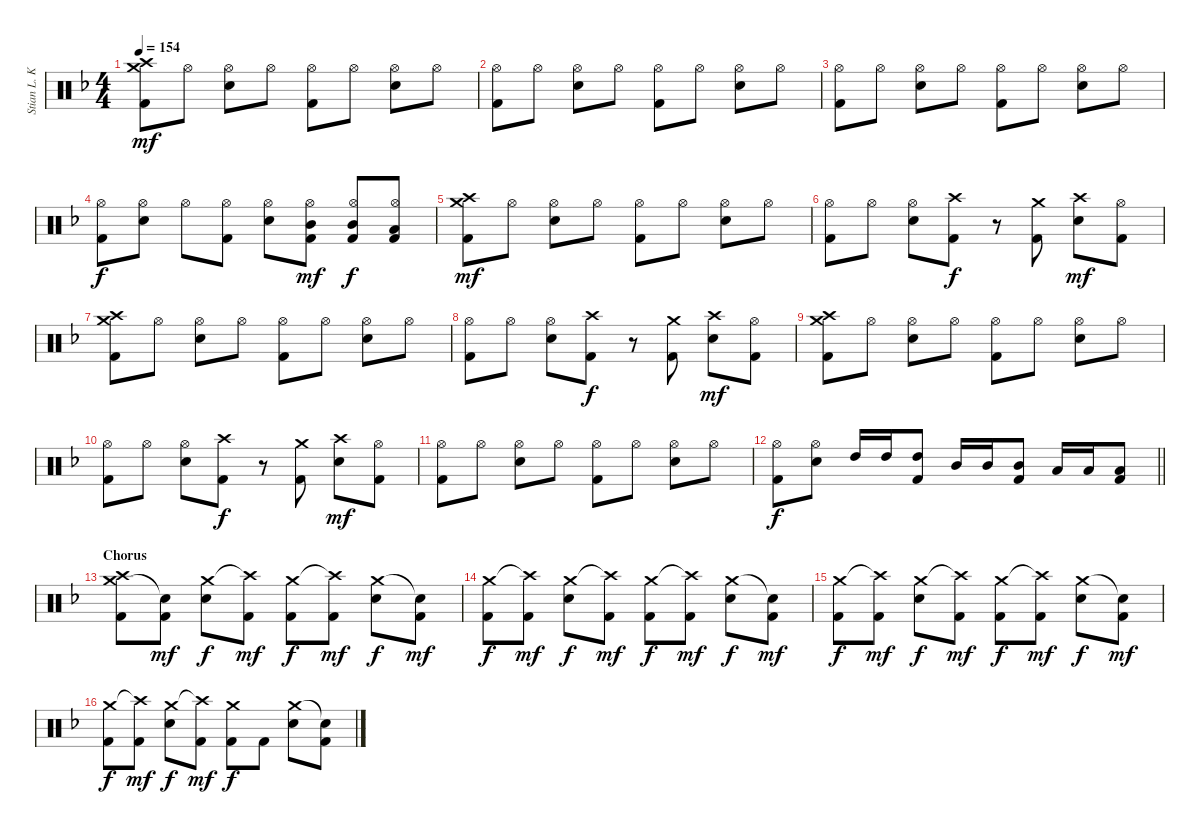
\track ("Stian L. Kristoffersen" "Stian L. K") {instrument percussion}
\staff {score}
\articulation defaults
\ts (4 4)
\tempo 154
\clef neutral
\ks f
("Crash medium (hit)" "Crash high (hit)" "Kick (hit) 2").8{dy mf} "Hi-Hat (open)".8 ("Hi-Hat (open)" "Snare (hit) 2").8 "Hi-Hat (open)".8 ("Hi-Hat (open)" "Kick (hit) 2").8 "Hi-Hat (open)".8 ("Hi-Hat (open)" "Snare (hit) 2").8 "Hi-Hat (open)".8 |
("Hi-Hat (open)" "Kick (hit) 2").8 "Hi-Hat (open)".8 ("Hi-Hat (open)" "Snare (hit) 2").8 "Hi-Hat (open)".8 ("Hi-Hat (open)" "Kick (hit) 2").8 "Hi-Hat (open)".8 ("Hi-Hat (open)" "Snare (hit) 2").8 "Hi-Hat (open)".8 |
("Hi-Hat (open)" "Kick (hit) 2").8 "Hi-Hat (open)".8 ("Hi-Hat (open)" "Snare (hit) 2").8 "Hi-Hat (open)".8 ("Hi-Hat (open)" "Kick (hit) 2").8 "Hi-Hat (open)".8 ("Hi-Hat (open)" "Snare (hit) 2").8 "Hi-Hat (open)".8 |
("Hi-Hat (open)" "Kick (hit) 2").8{dy f} ("Hi-Hat (open)" "Snare (hit) 2").8 "Hi-Hat (open)".8 ("Hi-Hat (open)" "Kick (hit) 2").8 ("Hi-Hat (open)" "Snare (hit) 2").8 ("Hi-Hat (open)" "Mid Tom (hit)" "Kick (hit) 2").8{dy mf} ("Hi-Hat (open)" "Mid Tom (hit)" "Kick (hit) 2").8{dy f} ("Hi-Hat (open)" "Low Tom (hit)" "Kick (hit) 2").8 |
("Crash medium (hit)" "Crash high (hit)" "Kick (hit) 2").8{dy mf} "Hi-Hat (open)".8 ("Hi-Hat (open)" "Snare (hit) 2").8 "Hi-Hat (open)".8 ("Hi-Hat (open)" "Kick (hit) 2").8 "Hi-Hat (open)".8 ("Hi-Hat (open)" "Snare (hit) 2").8 "Hi-Hat (open)".8 |
("Hi-Hat (open)" "Kick (hit) 2").8 "Hi-Hat (open)".8 ("Hi-Hat (open)" "Snare (hit) 2").8 ("Crash high (hit)" "Kick (hit) 2").8{dy f} r.8 ("Crash medium (hit)" "Kick (hit) 2").8 ("Crash high (hit)" "Snare (hit) 2").8{dy mf} ("Hi-Hat (open)" "Kick (hit) 2").8 |
("Crash medium (hit)" "Crash high (hit)" "Kick (hit) 2").8 "Hi-Hat (open)".8 ("Hi-Hat (open)" "Snare (hit) 2").8 "Hi-Hat (open)".8 ("Hi-Hat (open)" "Kick (hit) 2").8 "Hi-Hat (open)".8 ("Hi-Hat (open)" "Snare (hit) 2").8 "Hi-Hat (open)".8 |
("Hi-Hat (open)" "Kick (hit) 2").8 "Hi-Hat (open)".8 ("Hi-Hat (open)" "Snare (hit) 2").8 ("Crash high (hit)" "Kick (hit) 2").8{dy f} r.8 ("Crash medium (hit)" "Kick (hit) 2").8 ("Crash high (hit)" "Snare (hit) 2").8{dy mf} ("Hi-Hat (open)" "Kick (hit) 2").8 |
("Crash medium (hit)" "Crash high (hit)" "Kick (hit) 2").8 "Hi-Hat (open)".8 ("Hi-Hat (open)" "Snare (hit) 2").8 "Hi-Hat (open)".8 ("Hi-Hat (open)" "Kick (hit) 2").8 "Hi-Hat (open)".8 ("Hi-Hat (open)" "Snare (hit) 2").8 "Hi-Hat (open)".8 |
("Hi-Hat (open)" "Kick (hit) 2").8 "Hi-Hat (open)".8 ("Hi-Hat (open)" "Snare (hit) 2").8 ("Crash high (hit)" "Kick (hit) 2").8{dy f} r.8 ("Crash medium (hit)" "Kick (hit) 2").8 ("Crash high (hit)" "Snare (hit) 2").8{dy mf} ("Hi-Hat (open)" "Kick (hit) 2").8 |
("Hi-Hat (open)" "Kick (hit) 2").8 "Hi-Hat (open)".8 ("Hi-Hat (open)" "Snare (hit) 2").8 "Hi-Hat (open)".8 ("Hi-Hat (open)" "Kick (hit) 2").8 "Hi-Hat (open)".8 ("Hi-Hat (open)" "Snare (hit) 2").8 "Hi-Hat (open)".8 |
\barLineRight lightlight
("Hi-Hat (open)" "Kick (hit) 2").8{dy f} ("Hi-Hat (open)" "Snare (hit) 2").8 "High Tom (hit)".16 "High Tom (hit)".16 ("High Tom (hit)" "Kick (hit) 2").8 "Mid Tom (hit)".16 "Mid Tom (hit)".16 ("Mid Tom (hit)" "Kick (hit) 2").8 "Low Tom (hit)".16 "Low Tom (hit)".16 ("Low Tom (hit)" "Kick (hit) 2").8 |
\section ("" "Chorus")
("Crash medium (hit)" "Crash high (hit)" "Kick (hit) 2").8 ("Snare (hit)"{t} "Kick (hit) 2").8{dy mf} ("Crash medium (hit)" "Snare (hit) 2").8{dy f} ("Crash high (hit)"{t} "Kick (hit) 2").8{dy mf} ("Crash medium (hit)" "Kick (hit) 2").8{dy f} ("Crash high (hit)"{t} "Kick (hit) 2").8{dy mf} ("Crash medium (hit)" "Snare (hit) 2").8{dy f} ("Snare (hit)"{t} "Kick (hit) 2").8{dy mf} |
("Crash medium (hit)" "Kick (hit) 2").8{dy f} ("Crash high (hit)"{t} "Kick (hit) 2").8{dy mf} ("Crash medium (hit)" "Snare (hit) 2").8{dy f} ("Crash high (hit)"{t} "Kick (hit) 2").8{dy mf} ("Crash medium (hit)" "Kick (hit) 2").8{dy f} ("Crash high (hit)"{t} "Kick (hit) 2").8{dy mf} ("Crash medium (hit)" "Snare (hit) 2").8{dy f} ("Snare (hit)"{t} "Kick (hit) 2").8{dy mf} |
("Crash medium (hit)" "Kick (hit) 2").8{dy f} ("Crash high (hit)"{t} "Kick (hit) 2").8{dy mf} ("Crash medium (hit)" "Snare (hit) 2").8{dy f} ("Crash high (hit)"{t} "Kick (hit) 2").8{dy mf} ("Crash medium (hit)" "Kick (hit) 2").8{dy f} ("Crash high (hit)"{t} "Kick (hit) 2").8{dy mf} ("Crash medium (hit)" "Snare (hit) 2").8{dy f} ("Snare (hit)"{t} "Kick (hit) 2").8{dy mf} |
("Crash medium (hit)" "Kick (hit) 2").8{dy f} ("Crash high (hit)"{t} "Kick (hit) 2").8{dy mf} ("Crash medium (hit)" "Snare (hit) 2").8{dy f} ("Crash high (hit)"{t} "Kick (hit) 2").8{dy mf} ("Crash medium (hit)" "Kick (hit) 2").8{dy f} "Kick (hit) 2".8 ("Crash medium (hit)" "Snare (hit) 2").8 ("Snare (hit)"{t} "Kick (hit) 2").8
